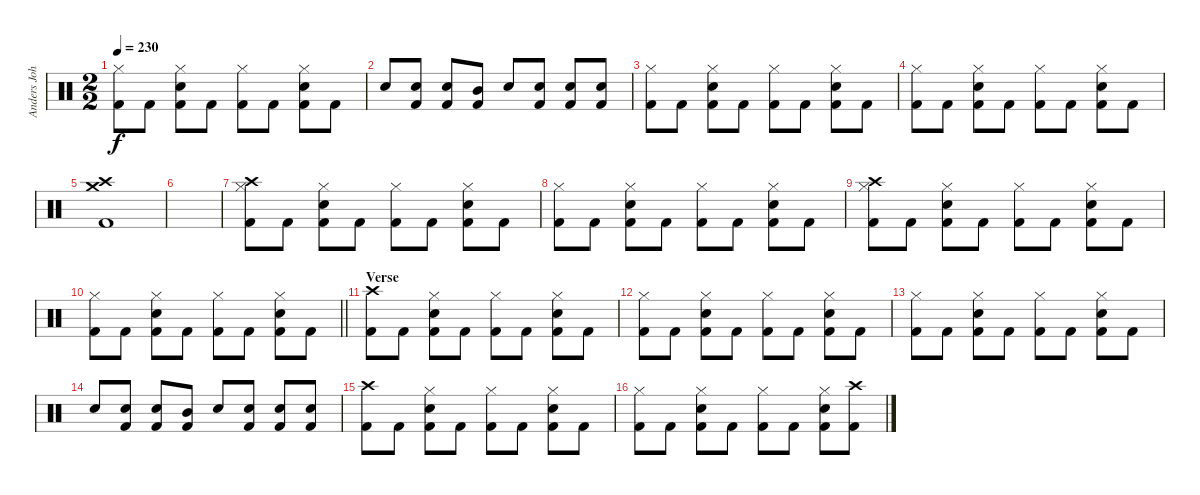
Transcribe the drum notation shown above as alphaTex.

\track ("Anders Johansson" "Anders Joh") {instrument percussion}
\staff {score}
\articulation defaults
\ts (2 2)
\tempo 230
\clef neutral
\ks c
("Hi-Hat (closed)" "Kick (hit) 2").8{dy f} "Kick (hit) 2".8 ("Electric Snare (hit)" "Hi-Hat (closed)" "Kick (hit) 2").8 "Kick (hit) 2".8 ("Hi-Hat (closed)" "Kick (hit) 2").8 "Kick (hit) 2".8 ("Electric Snare (hit)" "Hi-Hat (closed)" "Kick (hit) 2").8 "Kick (hit) 2".8 |
"Electric Snare (hit)".8 ("Electric Snare (hit)" "Kick (hit) 2").8 ("Electric Snare (hit)" "Kick (hit) 2").8 ("Mid Tom (hit)" "Kick (hit) 2").8 "Electric Snare (hit)".8 ("Electric Snare (hit)" "Kick (hit) 2").8 ("Electric Snare (hit)" "Kick (hit) 2").8 ("Electric Snare (hit)" "Kick (hit) 2").8 |
("Hi-Hat (closed)" "Kick (hit) 2").8 "Kick (hit) 2".8 ("Electric Snare (hit)" "Hi-Hat (closed)" "Kick (hit) 2").8 "Kick (hit) 2".8 ("Hi-Hat (closed)" "Kick (hit) 2").8 "Kick (hit) 2".8 ("Electric Snare (hit)" "Hi-Hat (closed)" "Kick (hit) 2").8 "Kick (hit) 2".8 |
("Hi-Hat (closed)" "Kick (hit) 2").8 "Kick (hit) 2".8 ("Electric Snare (hit)" "Hi-Hat (closed)" "Kick (hit) 2").8 "Kick (hit) 2".8 ("Hi-Hat (closed)" "Kick (hit) 2").8 "Kick (hit) 2".8 ("Electric Snare (hit)" "Hi-Hat (closed)" "Kick (hit) 2").8 "Kick (hit) 2".8 |
("Crash medium (hit)" "Crash high (hit)" "Kick (hit) 2").1 |
|
("Crash high (hit)" "Hi-Hat (closed)" "Kick (hit) 2").8 "Kick (hit) 2".8 ("Electric Snare (hit)" "Hi-Hat (closed)" "Kick (hit) 2").8 "Kick (hit) 2".8 ("Hi-Hat (closed)" "Kick (hit) 2").8 "Kick (hit) 2".8 ("Electric Snare (hit)" "Hi-Hat (closed)" "Kick (hit) 2").8 "Kick (hit) 2".8 |
("Hi-Hat (closed)" "Kick (hit) 2").8 "Kick (hit) 2".8 ("Electric Snare (hit)" "Hi-Hat (closed)" "Kick (hit) 2").8 "Kick (hit) 2".8 ("Hi-Hat (closed)" "Kick (hit) 2").8 "Kick (hit) 2".8 ("Electric Snare (hit)" "Hi-Hat (closed)" "Kick (hit) 2").8 "Kick (hit) 2".8 |
("Crash high (hit)" "Hi-Hat (closed)" "Kick (hit) 2").8 "Kick (hit) 2".8 ("Electric Snare (hit)" "Hi-Hat (closed)" "Kick (hit) 2").8 "Kick (hit) 2".8 ("Hi-Hat (closed)" "Kick (hit) 2").8 "Kick (hit) 2".8 ("Electric Snare (hit)" "Hi-Hat (closed)" "Kick (hit) 2").8 "Kick (hit) 2".8 |
\barLineRight lightlight
("Hi-Hat (closed)" "Kick (hit) 2").8 "Kick (hit) 2".8 ("Electric Snare (hit)" "Hi-Hat (closed)" "Kick (hit) 2").8 "Kick (hit) 2".8 ("Hi-Hat (closed)" "Kick (hit) 2").8 "Kick (hit) 2".8 ("Electric Snare (hit)" "Hi-Hat (closed)" "Kick (hit) 2").8 "Kick (hit) 2".8 |
\section ("" "Verse")
("Crash high (hit)" "Kick (hit) 2").8 "Kick (hit) 2".8 ("Electric Snare (hit)" "Hi-Hat (closed)" "Kick (hit) 2").8 "Kick (hit) 2".8 ("Hi-Hat (closed)" "Kick (hit) 2").8 "Kick (hit) 2".8 ("Electric Snare (hit)" "Hi-Hat (closed)" "Kick (hit) 2").8 "Kick (hit) 2".8 |
("Hi-Hat (closed)" "Kick (hit) 2").8 "Kick (hit) 2".8 ("Electric Snare (hit)" "Hi-Hat (closed)" "Kick (hit) 2").8 "Kick (hit) 2".8 ("Hi-Hat (closed)" "Kick (hit) 2").8 "Kick (hit) 2".8 ("Electric Snare (hit)" "Hi-Hat (closed)" "Kick (hit) 2").8 "Kick (hit) 2".8 |
("Hi-Hat (closed)" "Kick (hit) 2").8 "Kick (hit) 2".8 ("Electric Snare (hit)" "Hi-Hat (closed)" "Kick (hit) 2").8 "Kick (hit) 2".8 ("Hi-Hat (closed)" "Kick (hit) 2").8 "Kick (hit) 2".8 ("Electric Snare (hit)" "Hi-Hat (closed)" "Kick (hit) 2").8 "Kick (hit) 2".8 |
"Electric Snare (hit)".8 ("Electric Snare (hit)" "Kick (hit) 2").8 ("Electric Snare (hit)" "Kick (hit) 2").8 ("Mid Tom (hit)" "Kick (hit) 2").8 "Electric Snare (hit)".8 ("Electric Snare (hit)" "Kick (hit) 2").8 ("Electric Snare (hit)" "Kick (hit) 2").8 ("Electric Snare (hit)" "Kick (hit) 2").8 |
("Crash high (hit)" "Kick (hit) 2").8 "Kick (hit) 2".8 ("Electric Snare (hit)" "Hi-Hat (closed)" "Kick (hit) 2").8 "Kick (hit) 2".8 ("Hi-Hat (closed)" "Kick (hit) 2").8 "Kick (hit) 2".8 ("Electric Snare (hit)" "Hi-Hat (closed)" "Kick (hit) 2").8 "Kick (hit) 2".8 |
("Hi-Hat (closed)" "Kick (hit) 2").8 "Kick (hit) 2".8 ("Electric Snare (hit)" "Hi-Hat (closed)" "Kick (hit) 2").8 "Kick (hit) 2".8 ("Hi-Hat (closed)" "Kick (hit) 2").8 "Kick (hit) 2".8 ("Electric Snare (hit)" "Hi-Hat (closed)" "Kick (hit) 2").8 ("Crash high (hit)" "Kick (hit) 2").8
